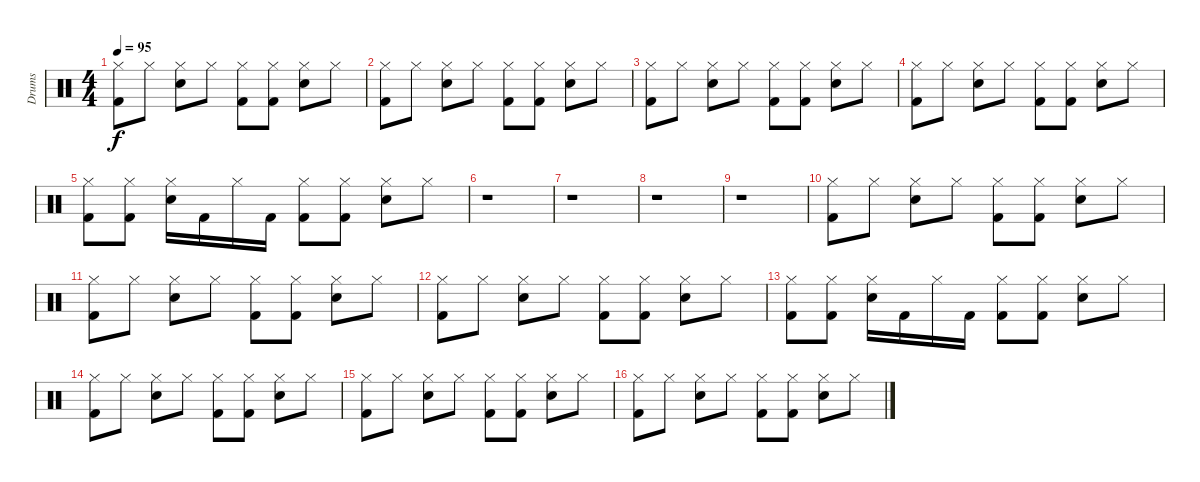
\track ("Drums" "Drums") {instrument percussion}
\staff
\articulation defaults
\ts (4 4)
\tempo 95
\clef neutral
\ks c
("Hi-Hat (closed)" "Kick (hit) 2").8{dy f} "Hi-Hat (closed)".8 ("Hi-Hat (closed)" "Electric Snare (hit)").8 "Hi-Hat (closed)".8 ("Hi-Hat (closed)" "Kick (hit) 2").8 ("Hi-Hat (closed)" "Kick (hit) 2").8 ("Hi-Hat (closed)" "Electric Snare (hit)").8 "Hi-Hat (closed)".8 |
("Hi-Hat (closed)" "Kick (hit) 2").8 "Hi-Hat (closed)".8 ("Hi-Hat (closed)" "Electric Snare (hit)").8 "Hi-Hat (closed)".8 ("Hi-Hat (closed)" "Kick (hit) 2").8 ("Hi-Hat (closed)" "Kick (hit) 2").8 ("Hi-Hat (closed)" "Electric Snare (hit)").8 "Hi-Hat (closed)".8 |
("Hi-Hat (closed)" "Kick (hit) 2").8 "Hi-Hat (closed)".8 ("Hi-Hat (closed)" "Electric Snare (hit)").8 "Hi-Hat (closed)".8 ("Hi-Hat (closed)" "Kick (hit) 2").8 ("Hi-Hat (closed)" "Kick (hit) 2").8 ("Hi-Hat (closed)" "Electric Snare (hit)").8 "Hi-Hat (closed)".8 |
("Hi-Hat (closed)" "Kick (hit) 2").8 "Hi-Hat (closed)".8 ("Hi-Hat (closed)" "Electric Snare (hit)").8 "Hi-Hat (closed)".8 ("Hi-Hat (closed)" "Kick (hit) 2").8 ("Hi-Hat (closed)" "Kick (hit) 2").8 ("Hi-Hat (closed)" "Electric Snare (hit)").8 "Hi-Hat (closed)".8 |
("Hi-Hat (closed)" "Kick (hit) 2").8 ("Hi-Hat (closed)" "Kick (hit) 2").8 ("Hi-Hat (closed)" "Electric Snare (hit)").16 "Kick (hit) 2".16 "Hi-Hat (closed)".16 "Kick (hit) 2".16 ("Hi-Hat (closed)" "Kick (hit) 2").8 ("Hi-Hat (closed)" "Kick (hit) 2").8 ("Hi-Hat (closed)" "Electric Snare (hit)").8 "Hi-Hat (closed)".8 |
r.1 |
r.1 |
r.1 |
r.1 |
("Hi-Hat (closed)" "Kick (hit) 2").8 "Hi-Hat (closed)".8 ("Hi-Hat (closed)" "Electric Snare (hit)").8 "Hi-Hat (closed)".8 ("Hi-Hat (closed)" "Kick (hit) 2").8 ("Hi-Hat (closed)" "Kick (hit) 2").8 ("Hi-Hat (closed)" "Electric Snare (hit)").8 "Hi-Hat (closed)".8 |
("Hi-Hat (closed)" "Kick (hit) 2").8 "Hi-Hat (closed)".8 ("Hi-Hat (closed)" "Electric Snare (hit)").8 "Hi-Hat (closed)".8 ("Hi-Hat (closed)" "Kick (hit) 2").8 ("Hi-Hat (closed)" "Kick (hit) 2").8 ("Hi-Hat (closed)" "Electric Snare (hit)").8 "Hi-Hat (closed)".8 |
("Hi-Hat (closed)" "Kick (hit) 2").8 "Hi-Hat (closed)".8 ("Hi-Hat (closed)" "Electric Snare (hit)").8 "Hi-Hat (closed)".8 ("Hi-Hat (closed)" "Kick (hit) 2").8 ("Hi-Hat (closed)" "Kick (hit) 2").8 ("Hi-Hat (closed)" "Electric Snare (hit)").8 "Hi-Hat (closed)".8 |
("Hi-Hat (closed)" "Kick (hit) 2").8 ("Hi-Hat (closed)" "Kick (hit) 2").8 ("Hi-Hat (closed)" "Electric Snare (hit)").16 "Kick (hit) 2".16 "Hi-Hat (closed)".16 "Kick (hit) 2".16 ("Hi-Hat (closed)" "Kick (hit) 2").8 ("Hi-Hat (closed)" "Kick (hit) 2").8 ("Hi-Hat (closed)" "Electric Snare (hit)").8 "Hi-Hat (closed)".8 |
("Hi-Hat (closed)" "Kick (hit) 2").8 "Hi-Hat (closed)".8 ("Hi-Hat (closed)" "Electric Snare (hit)").8 "Hi-Hat (closed)".8 ("Hi-Hat (closed)" "Kick (hit) 2").8 ("Hi-Hat (closed)" "Kick (hit) 2").8 ("Hi-Hat (closed)" "Electric Snare (hit)").8 "Hi-Hat (closed)".8 |
("Hi-Hat (closed)" "Kick (hit) 2").8 "Hi-Hat (closed)".8 ("Hi-Hat (closed)" "Electric Snare (hit)").8 "Hi-Hat (closed)".8 ("Hi-Hat (closed)" "Kick (hit) 2").8 ("Hi-Hat (closed)" "Kick (hit) 2").8 ("Hi-Hat (closed)" "Electric Snare (hit)").8 "Hi-Hat (closed)".8 |
("Hi-Hat (closed)" "Kick (hit) 2").8 "Hi-Hat (closed)".8 ("Hi-Hat (closed)" "Electric Snare (hit)").8 "Hi-Hat (closed)".8 ("Hi-Hat (closed)" "Kick (hit) 2").8 ("Hi-Hat (closed)" "Kick (hit) 2").8 ("Hi-Hat (closed)" "Electric Snare (hit)").8 "Hi-Hat (closed)".8
